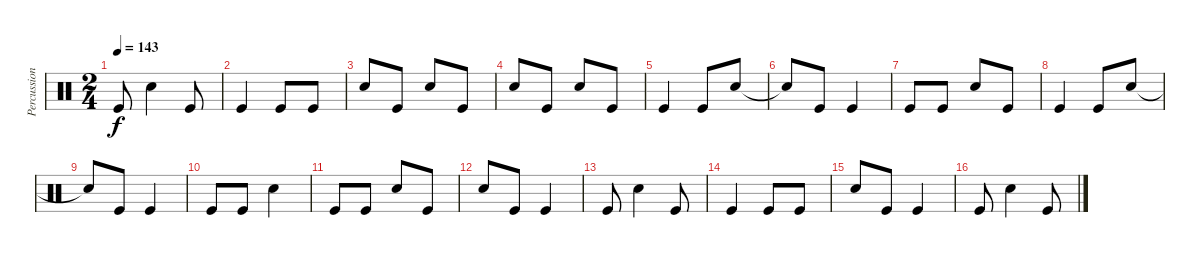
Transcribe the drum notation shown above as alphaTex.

\track ("Percussion" "Percussion") {instrument percussion}
\staff {score}
\articulation defaults
\ts (2 4)
\tempo 143
\clef neutral
\ks c "Kick (hit)".8{dy f} "Electric Snare (hit)".4 "Kick (hit)".8
|
"Kick (hit)".4 "Kick (hit)".8 "Kick (hit)".8 |
"Electric Snare (hit)".8 "Kick (hit)".8 "Electric Snare (hit)".8 "Kick (hit)".8 |
"Electric Snare (hit)".8 "Kick (hit)".8 "Electric Snare (hit)".8 "Kick (hit)".8 |
"Kick (hit)".4{volume 16} "Kick (hit)".8 "Electric Snare (hit)".8 |
"Electric Snare (hit)"{t}.8 "Kick (hit)".8 "Kick (hit)".4 |
"Kick (hit)".8 "Kick (hit)".8 "Electric Snare (hit)".8 "Kick (hit)".8 |
"Kick (hit)".4 "Kick (hit)".8 "Electric Snare (hit)".8 |
"Snare (hit)"{t}.8 "Kick (hit)".8 "Kick (hit)".4 |
"Kick (hit)".8 "Kick (hit)".8 "Electric Snare (hit)".4 |
"Kick (hit)".8 "Kick (hit)".8 "Electric Snare (hit)".8 "Kick (hit)".8 |
"Electric Snare (hit)".8 "Kick (hit)".8 "Kick (hit)".4 |
"Kick (hit)".8 "Electric Snare (hit)".4 "Kick (hit)".8 |
"Kick (hit)".4 "Kick (hit)".8 "Kick (hit)".8 |
"Electric Snare (hit)".8 "Kick (hit)".8 "Kick (hit)".4 |
"Kick (hit)".8 "Electric Snare (hit)".4 "Kick (hit)".8
